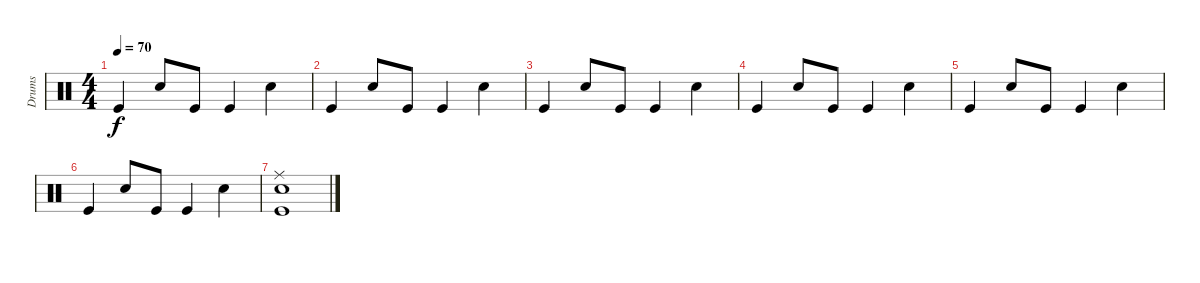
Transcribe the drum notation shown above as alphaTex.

\track ("Drums" "Drums") {instrument percussion}
\staff {score}
\articulation defaults
\ts (4 4)
\tempo 70
\clef neutral
\ks c "Kick (hit)".4{dy f} "Snare (hit) 2".8 "Kick (hit)".8 "Kick (hit)".4 "Snare (hit) 2".4
|
"Kick (hit)".4 "Snare (hit) 2".8 "Kick (hit)".8 "Kick (hit)".4 "Snare (hit) 2".4 |
"Kick (hit)".4 "Snare (hit) 2".8 "Kick (hit)".8 "Kick (hit)".4 "Snare (hit) 2".4 |
"Kick (hit)".4 "Snare (hit) 2".8 "Kick (hit)".8 "Kick (hit)".4 "Snare (hit) 2".4 |
"Kick (hit)".4 "Snare (hit) 2".8 "Kick (hit)".8 "Kick (hit)".4 "Snare (hit) 2".4 |
"Kick (hit)".4 "Snare (hit) 2".8 "Kick (hit)".8 "Kick (hit)".4 "Snare (hit) 2".4 |
("Ride (middle)" "Snare (hit) 2" "Kick (hit)").1
